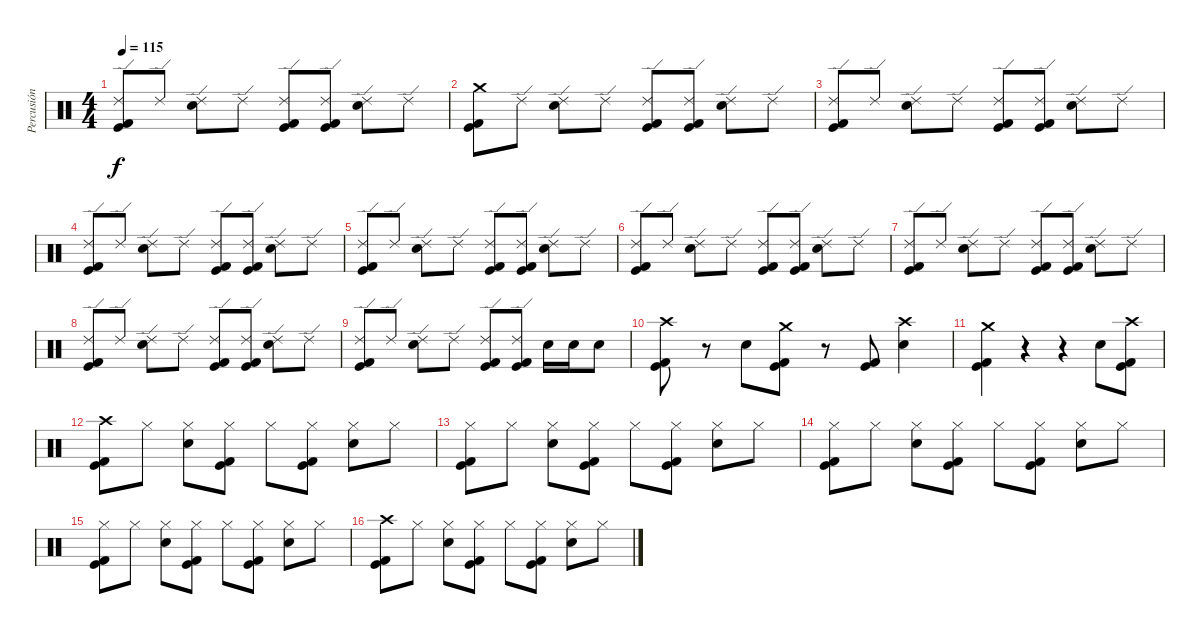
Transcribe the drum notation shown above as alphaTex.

\track ("Percusión" "Percusión") {instrument percussion}
\staff {score}
\articulation defaults
\ts (4 4)
\tempo 115
\clef neutral
\ks c
("Kick (hit) 2" "Ride (edge) 2" "Kick (hit)").8{dy f} "Ride (edge) 2".8 ("Snare (hit) 2" "Ride (edge) 2").8 "Ride (edge) 2".8 ("Kick (hit) 2" "Ride (edge) 2" "Kick (hit)").8 ("Kick (hit) 2" "Ride (edge) 2" "Kick (hit)").8 ("Snare (hit) 2" "Ride (edge) 2").8 "Ride (edge) 2".8 |
("Kick (hit) 2" "Crash medium (hit)" "Kick (hit)").8 "Ride (edge) 2".8 ("Snare (hit) 2" "Ride (edge) 2").8 "Ride (edge) 2".8 ("Kick (hit) 2" "Ride (edge) 2" "Kick (hit)").8 ("Kick (hit) 2" "Ride (edge) 2" "Kick (hit)").8 ("Snare (hit) 2" "Ride (edge) 2").8 "Ride (edge) 2".8 |
("Kick (hit) 2" "Ride (edge) 2" "Kick (hit)").8 "Ride (edge) 2".8 ("Snare (hit) 2" "Ride (edge) 2").8 "Ride (edge) 2".8 ("Kick (hit) 2" "Ride (edge) 2" "Kick (hit)").8 ("Kick (hit) 2" "Ride (edge) 2" "Kick (hit)").8 ("Snare (hit) 2" "Ride (edge) 2").8 "Ride (edge) 2".8 |
("Kick (hit) 2" "Ride (edge) 2" "Kick (hit)").8 "Ride (edge) 2".8 ("Snare (hit) 2" "Ride (edge) 2").8 "Ride (edge) 2".8 ("Kick (hit) 2" "Ride (edge) 2" "Kick (hit)").8 ("Kick (hit) 2" "Ride (edge) 2" "Kick (hit)").8 ("Snare (hit) 2" "Ride (edge) 2").8 "Ride (edge) 2".8 |
("Kick (hit) 2" "Ride (edge) 2" "Kick (hit)").8 "Ride (edge) 2".8 ("Snare (hit) 2" "Ride (edge) 2").8 "Ride (edge) 2".8 ("Kick (hit) 2" "Ride (edge) 2" "Kick (hit)").8 ("Kick (hit) 2" "Ride (edge) 2" "Kick (hit)").8 ("Snare (hit) 2" "Ride (edge) 2").8 "Ride (edge) 2".8 |
("Kick (hit) 2" "Ride (edge) 2" "Kick (hit)").8 "Ride (edge) 2".8 ("Snare (hit) 2" "Ride (edge) 2").8 "Ride (edge) 2".8 ("Kick (hit) 2" "Ride (edge) 2" "Kick (hit)").8 ("Kick (hit) 2" "Ride (edge) 2" "Kick (hit)").8 ("Snare (hit) 2" "Ride (edge) 2").8 "Ride (edge) 2".8 |
("Kick (hit) 2" "Ride (edge) 2" "Kick (hit)").8 "Ride (edge) 2".8 ("Snare (hit) 2" "Ride (edge) 2").8 "Ride (edge) 2".8 ("Kick (hit) 2" "Ride (edge) 2" "Kick (hit)").8 ("Kick (hit) 2" "Ride (edge) 2" "Kick (hit)").8 ("Snare (hit) 2" "Ride (edge) 2").8 "Ride (edge) 2".8 |
("Kick (hit) 2" "Ride (edge) 2" "Kick (hit)").8 "Ride (edge) 2".8 ("Snare (hit) 2" "Ride (edge) 2").8 "Ride (edge) 2".8 ("Kick (hit) 2" "Ride (edge) 2" "Kick (hit)").8 ("Kick (hit) 2" "Ride (edge) 2" "Kick (hit)").8 ("Snare (hit) 2" "Ride (edge) 2").8 "Ride (edge) 2".8 |
("Kick (hit) 2" "Ride (edge) 2" "Kick (hit)").8 "Ride (edge) 2".8 ("Snare (hit) 2" "Ride (edge) 2").8 "Ride (edge) 2".8 ("Kick (hit) 2" "Ride (edge) 2" "Kick (hit)").8 ("Kick (hit) 2" "Ride (edge) 2" "Kick (hit)").8 "Snare (hit) 2".16 "Snare (hit) 2".16 "Snare (hit) 2".8 |
("Kick (hit) 2" "Crash high (hit)" "Kick (hit)").8 r.8 "Snare (hit) 2".8 ("Kick (hit) 2" "Crash medium (hit)" "Kick (hit)").8 r.8 ("Kick (hit) 2" "Kick (hit)").8 ("Snare (hit) 2" "Crash high (hit)").4 |
("Kick (hit) 2" "Crash medium (hit)" "Kick (hit)").4 r.4 r.4 "Snare (hit) 2".8 ("Kick (hit) 2" "Crash high (hit)" "Kick (hit)").8 |
("Kick (hit) 2" "Crash high (hit)" "Kick (hit)").8 "Hi-Hat (closed)".8 ("Snare (hit) 2" "Hi-Hat (closed)").8 ("Kick (hit) 2" "Hi-Hat (closed)" "Kick (hit)").8 "Hi-Hat (closed)".8 ("Kick (hit) 2" "Hi-Hat (closed)" "Kick (hit)").8 ("Snare (hit) 2" "Hi-Hat (closed)").8 "Hi-Hat (closed)".8 |
("Kick (hit) 2" "Hi-Hat (closed)" "Kick (hit)").8 "Hi-Hat (closed)".8 ("Snare (hit) 2" "Hi-Hat (closed)").8 ("Kick (hit) 2" "Hi-Hat (closed)" "Kick (hit)").8 "Hi-Hat (closed)".8 ("Kick (hit) 2" "Hi-Hat (closed)" "Kick (hit)").8 ("Snare (hit) 2" "Hi-Hat (closed)").8 "Hi-Hat (closed)".8 |
("Kick (hit) 2" "Hi-Hat (closed)" "Kick (hit)").8 "Hi-Hat (closed)".8 ("Snare (hit) 2" "Hi-Hat (closed)").8 ("Kick (hit) 2" "Hi-Hat (closed)" "Kick (hit)").8 "Hi-Hat (closed)".8 ("Kick (hit) 2" "Hi-Hat (closed)" "Kick (hit)").8 ("Snare (hit) 2" "Hi-Hat (closed)").8 "Hi-Hat (closed)".8 |
("Kick (hit) 2" "Hi-Hat (closed)" "Kick (hit)").8 "Hi-Hat (closed)".8 ("Snare (hit) 2" "Hi-Hat (closed)").8 ("Kick (hit) 2" "Hi-Hat (closed)" "Kick (hit)").8 "Hi-Hat (closed)".8 ("Kick (hit) 2" "Hi-Hat (closed)" "Kick (hit)").8 ("Snare (hit) 2" "Hi-Hat (closed)").8 "Hi-Hat (closed)".8 |
("Kick (hit) 2" "Crash high (hit)" "Kick (hit)").8 "Hi-Hat (closed)".8 ("Snare (hit) 2" "Hi-Hat (closed)").8 ("Kick (hit) 2" "Hi-Hat (closed)" "Kick (hit)").8 "Hi-Hat (closed)".8 ("Kick (hit) 2" "Hi-Hat (closed)" "Kick (hit)").8 ("Snare (hit) 2" "Hi-Hat (closed)").8 "Hi-Hat (closed)".8
